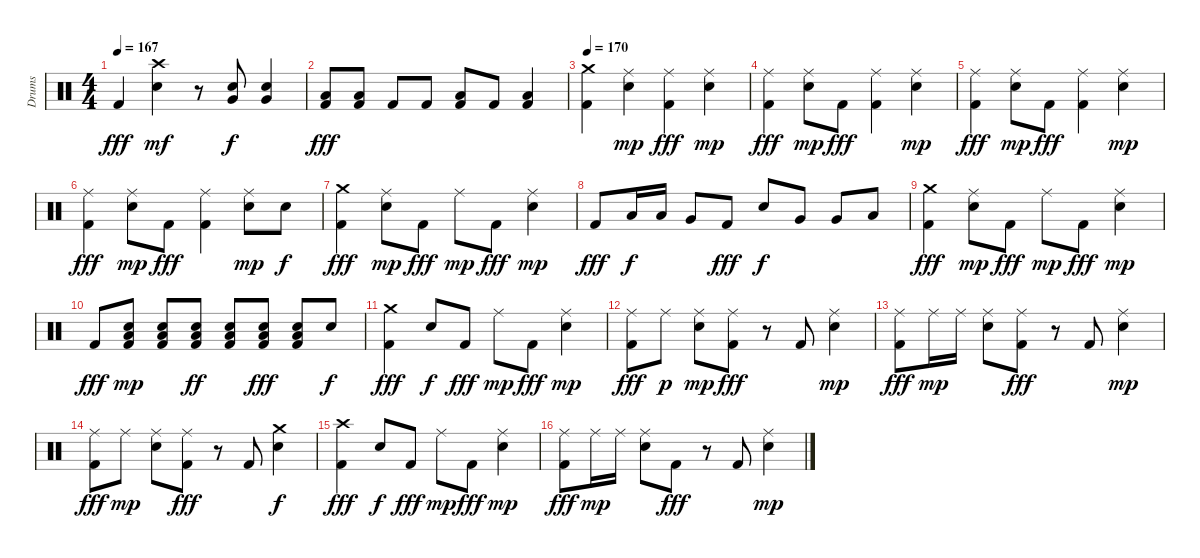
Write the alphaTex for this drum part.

\track ("Drums" "Drums") {instrument percussion}
\staff {score}
\articulation defaults
\ts (4 4)
\tempo 167
\clef neutral
\ks c "Kick (hit) 2".4{dy fff}
("Crash high (hit)" "Electric Snare (hit)").4{dy mf} r.8 ("Electric Snare (hit)" "Very Low Tom (hit)").8{dy f} ("Electric Snare (hit)" "Very Low Tom (hit)").4 |
("Low Floor Tom (hit)" "Kick (hit) 2").8{dy fff} ("Low Floor Tom (hit)" "Kick (hit) 2").8 "Kick (hit) 2".8 "Kick (hit) 2".8 ("Low Floor Tom (hit)" "Kick (hit) 2").8 "Kick (hit) 2".8 ("Low Floor Tom (hit)" "Kick (hit) 2").4 |
\tempo 170
("Crash medium (hit)" "Kick (hit) 2").4 ("Ride (middle)" "Electric Snare (hit)").4{dy mp} ("Ride (middle)" "Kick (hit) 2").4{dy fff} ("Ride (middle)" "Electric Snare (hit)").4{dy mp} |
("Ride (middle)" "Kick (hit) 2").4{dy fff} ("Ride (middle)" "Electric Snare (hit)").8{dy mp} "Kick (hit) 2".8{dy fff} ("Ride (middle)" "Kick (hit) 2").4 ("Ride (middle)" "Electric Snare (hit)").4{dy mp} |
("Ride (middle)" "Kick (hit) 2").4{dy fff} ("Ride (middle)" "Electric Snare (hit)").8{dy mp} "Kick (hit) 2".8{dy fff} ("Ride (middle)" "Kick (hit) 2").4 ("Ride (middle)" "Electric Snare (hit)").4{dy mp} |
("Ride (middle)" "Kick (hit) 2").4{dy fff} ("Ride (middle)" "Electric Snare (hit)").8{dy mp} "Kick (hit) 2".8{dy fff} ("Ride (middle)" "Kick (hit) 2").4 ("Ride (middle)" "Electric Snare (hit)").8{dy mp} "Electric Snare (hit)".8{dy f} |
("Crash medium (hit)" "Kick (hit) 2").4{dy fff} ("Ride (middle)" "Electric Snare (hit)").8{dy mp} "Kick (hit) 2".8{dy fff} "Ride (middle)".8{dy mp} "Kick (hit) 2".8{dy fff} ("Ride (middle)" "Electric Snare (hit)").4{dy mp} |
"Kick (hit) 2".8{dy fff} "Low Tom (hit)".16{dy f} "Low Tom (hit)".16 "Very Low Tom (hit)".8 "Kick (hit) 2".8{dy fff} "Electric Snare (hit)".8{dy f} "Very Low Tom (hit)".8 "Very Low Tom (hit)".8 "Low Floor Tom (hit)".8 |
("Crash medium (hit)" "Kick (hit) 2").4{dy fff} ("Ride (middle)" "Electric Snare (hit)").8{dy mp} "Kick (hit) 2".8{dy fff} "Ride (middle)".8{dy mp} "Kick (hit) 2".8{dy fff} ("Ride (middle)" "Electric Snare (hit)").4{dy mp} |
"Kick (hit) 2".8{dy fff} ("Electric Snare (hit)" "Low Floor Tom (hit)" "Kick (hit) 2").8{dy mp} ("Electric Snare (hit)" "Low Floor Tom (hit)" "Kick (hit) 2").8 ("Electric Snare (hit)" "Low Floor Tom (hit)" "Kick (hit) 2").8{dy ff} ("Electric Snare (hit)" "Low Floor Tom (hit)" "Kick (hit) 2").8 ("Electric Snare (hit)" "Low Floor Tom (hit)" "Kick (hit) 2").8{dy fff} ("Electric Snare (hit)" "Low Floor Tom (hit)" "Kick (hit) 2").8 "Electric Snare (hit)".8{dy f} |
("Crash medium (hit)" "Kick (hit) 2").4{dy fff} "Electric Snare (hit)".8{dy f} "Kick (hit) 2".8{dy fff} "Ride (middle)".8{dy mp} "Kick (hit) 2".8{dy fff} ("Ride (middle)" "Electric Snare (hit)").4{dy mp} |
("Ride (middle)" "Kick (hit) 2").8{dy fff} "Ride (middle)".8{dy p} ("Ride (middle)" "Electric Snare (hit)").8{dy mp} ("Ride (middle)" "Kick (hit) 2").8{dy fff} r.8 "Kick (hit) 2".8 ("Ride (middle)" "Electric Snare (hit)").4{dy mp} |
("Ride (middle)" "Kick (hit) 2").8{dy fff} "Ride (middle)".16{dy mp} "Ride (middle)".16 ("Ride (middle)" "Electric Snare (hit)").8 ("Ride (middle)" "Kick (hit) 2").8{dy fff} r.8 "Kick (hit) 2".8 ("Ride (middle)" "Electric Snare (hit)").4{dy mp} |
("Ride (middle)" "Kick (hit) 2").8{dy fff} "Ride (middle)".8{dy mp} ("Ride (middle)" "Electric Snare (hit)").8 ("Ride (middle)" "Kick (hit) 2").8{dy fff} r.8 "Kick (hit) 2".8 ("Crash medium (hit)" "Electric Snare (hit)").4{dy f} |
("Crash high (hit)" "Kick (hit) 2").4{dy fff} "Electric Snare (hit)".8{dy f} "Kick (hit) 2".8{dy fff} "Ride (middle)".8{dy mp} "Kick (hit) 2".8{dy fff} ("Ride (middle)" "Electric Snare (hit)").4{dy mp} |
("Ride (middle)" "Kick (hit) 2").8{dy fff} "Ride (middle)".16{dy mp} "Ride (middle)".16 ("Ride (middle)" "Electric Snare (hit)").8 "Kick (hit) 2".8{dy fff} r.8 "Kick (hit) 2".8 ("Ride (middle)" "Electric Snare (hit)").4{dy mp}
